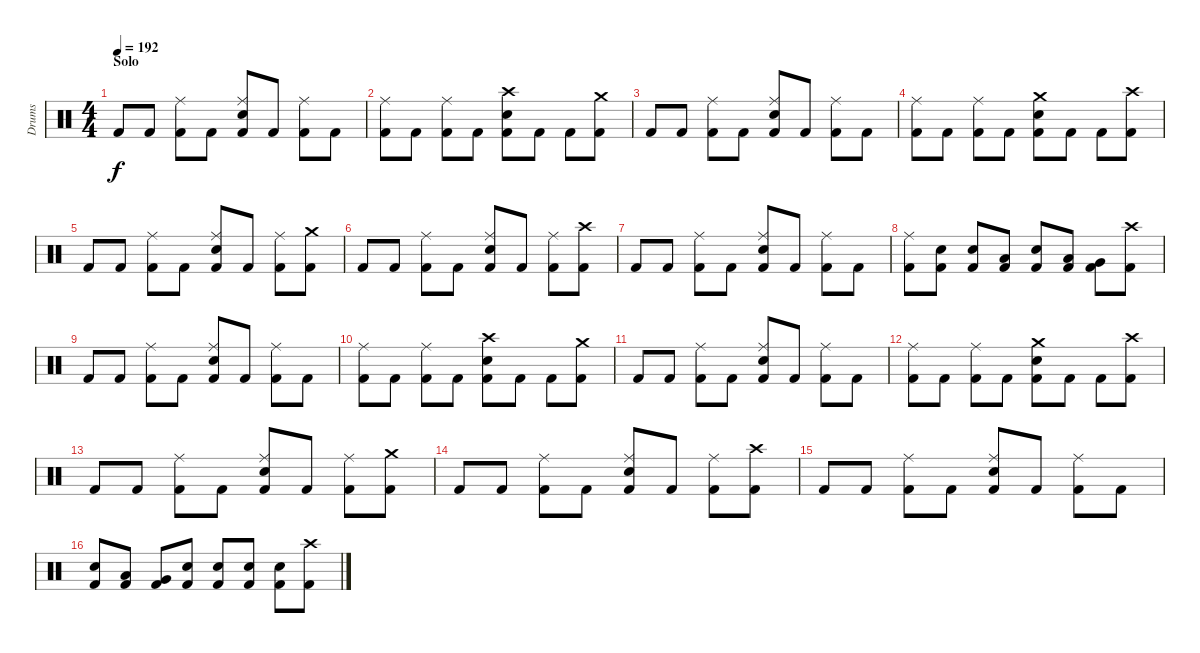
\track ("Drums" "Drums") {instrument percussion}
\staff {score}
\articulation defaults
\ts (4 4)
\section ("" "Solo")
\tempo 192
\clef neutral
\ks c "Kick (hit) 2".8{dy f} "Kick (hit) 2".8
("Ride (middle)" "Kick (hit) 2").8 "Kick (hit) 2".8 ("Ride (middle)" "Snare (hit) 2" "Kick (hit) 2").8 "Kick (hit) 2".8 ("Ride (middle)" "Kick (hit) 2").8 "Kick (hit) 2".8 |
("Ride (middle)" "Kick (hit) 2").8 "Kick (hit) 2".8 ("Ride (middle)" "Kick (hit) 2").8 "Kick (hit) 2".8 ("Crash high (hit)" "Snare (hit) 2" "Kick (hit) 2").8 "Kick (hit) 2".8 "Kick (hit) 2".8 ("Crash medium (hit)" "Kick (hit) 2").8 |
"Kick (hit) 2".8 "Kick (hit) 2".8 ("Ride (middle)" "Kick (hit) 2").8 "Kick (hit) 2".8 ("Ride (middle)" "Snare (hit) 2" "Kick (hit) 2").8 "Kick (hit) 2".8 ("Ride (middle)" "Kick (hit) 2").8 "Kick (hit) 2".8 |
("Ride (middle)" "Kick (hit) 2").8 "Kick (hit) 2".8 ("Ride (middle)" "Kick (hit) 2").8 "Kick (hit) 2".8 ("Crash medium (hit)" "Snare (hit) 2" "Kick (hit) 2").8 "Kick (hit) 2".8 "Kick (hit) 2".8 ("Crash high (hit)" "Kick (hit) 2").8 |
"Kick (hit) 2".8 "Kick (hit) 2".8 ("Ride (middle)" "Kick (hit) 2").8 "Kick (hit) 2".8 ("Ride (middle)" "Snare (hit) 2" "Kick (hit) 2").8 "Kick (hit) 2".8 ("Ride (middle)" "Kick (hit) 2").8 ("Crash medium (hit)" "Kick (hit) 2").8 |
"Kick (hit) 2".8 "Kick (hit) 2".8 ("Ride (middle)" "Kick (hit) 2").8 "Kick (hit) 2".8 ("Ride (middle)" "Snare (hit) 2" "Kick (hit) 2").8 "Kick (hit) 2".8 ("Ride (middle)" "Kick (hit) 2").8 ("Crash high (hit)" "Kick (hit) 2").8 |
"Kick (hit) 2".8 "Kick (hit) 2".8 ("Ride (middle)" "Kick (hit) 2").8 "Kick (hit) 2".8 ("Ride (middle)" "Snare (hit) 2" "Kick (hit) 2").8 "Kick (hit) 2".8 ("Ride (middle)" "Kick (hit) 2").8 "Kick (hit) 2".8 |
("Ride (middle)" "Kick (hit) 2").8 ("Snare (hit) 2" "Kick (hit) 2").8 ("Snare (hit) 2" "Kick (hit) 2").8 ("Low Tom (hit)" "Kick (hit) 2").8 ("Snare (hit) 2" "Kick (hit) 2").8 ("Low Tom (hit)" "Kick (hit) 2").8 ("Very Low Tom (hit)" "Kick (hit) 2").8 ("Crash high (hit)" "Kick (hit) 2").8 |
"Kick (hit) 2".8 "Kick (hit) 2".8 ("Ride (middle)" "Kick (hit) 2").8 "Kick (hit) 2".8 ("Ride (middle)" "Snare (hit) 2" "Kick (hit) 2").8 "Kick (hit) 2".8 ("Ride (middle)" "Kick (hit) 2").8 "Kick (hit) 2".8 |
("Ride (middle)" "Kick (hit) 2").8 "Kick (hit) 2".8 ("Ride (middle)" "Kick (hit) 2").8 "Kick (hit) 2".8 ("Crash high (hit)" "Snare (hit) 2" "Kick (hit) 2").8 "Kick (hit) 2".8 "Kick (hit) 2".8 ("Crash medium (hit)" "Kick (hit) 2").8 |
"Kick (hit) 2".8 "Kick (hit) 2".8 ("Ride (middle)" "Kick (hit) 2").8 "Kick (hit) 2".8 ("Ride (middle)" "Snare (hit) 2" "Kick (hit) 2").8 "Kick (hit) 2".8 ("Ride (middle)" "Kick (hit) 2").8 "Kick (hit) 2".8 |
("Ride (middle)" "Kick (hit) 2").8 "Kick (hit) 2".8 ("Ride (middle)" "Kick (hit) 2").8 "Kick (hit) 2".8 ("Crash medium (hit)" "Snare (hit) 2" "Kick (hit) 2").8 "Kick (hit) 2".8 "Kick (hit) 2".8 ("Crash high (hit)" "Kick (hit) 2").8 |
"Kick (hit) 2".8 "Kick (hit) 2".8 ("Ride (middle)" "Kick (hit) 2").8 "Kick (hit) 2".8 ("Ride (middle)" "Snare (hit) 2" "Kick (hit) 2").8 "Kick (hit) 2".8 ("Ride (middle)" "Kick (hit) 2").8 ("Crash medium (hit)" "Kick (hit) 2").8 |
"Kick (hit) 2".8 "Kick (hit) 2".8 ("Ride (middle)" "Kick (hit) 2").8 "Kick (hit) 2".8 ("Ride (middle)" "Snare (hit) 2" "Kick (hit) 2").8 "Kick (hit) 2".8 ("Ride (middle)" "Kick (hit) 2").8 ("Crash high (hit)" "Kick (hit) 2").8 |
"Kick (hit) 2".8 "Kick (hit) 2".8 ("Ride (middle)" "Kick (hit) 2").8 "Kick (hit) 2".8 ("Ride (middle)" "Snare (hit) 2" "Kick (hit) 2").8 "Kick (hit) 2".8 ("Ride (middle)" "Kick (hit) 2").8 "Kick (hit) 2".8 |
("Snare (hit) 2" "Kick (hit) 2").8 ("Low Tom (hit)" "Kick (hit) 2").8 ("Very Low Tom (hit)" "Kick (hit) 2").8 ("Snare (hit) 2" "Kick (hit) 2").8 ("Snare (hit) 2" "Kick (hit) 2").8 ("Snare (hit) 2" "Kick (hit) 2").8 ("Snare (hit) 2" "Kick (hit) 2").8 ("Crash high (hit)" "Kick (hit) 2").8
